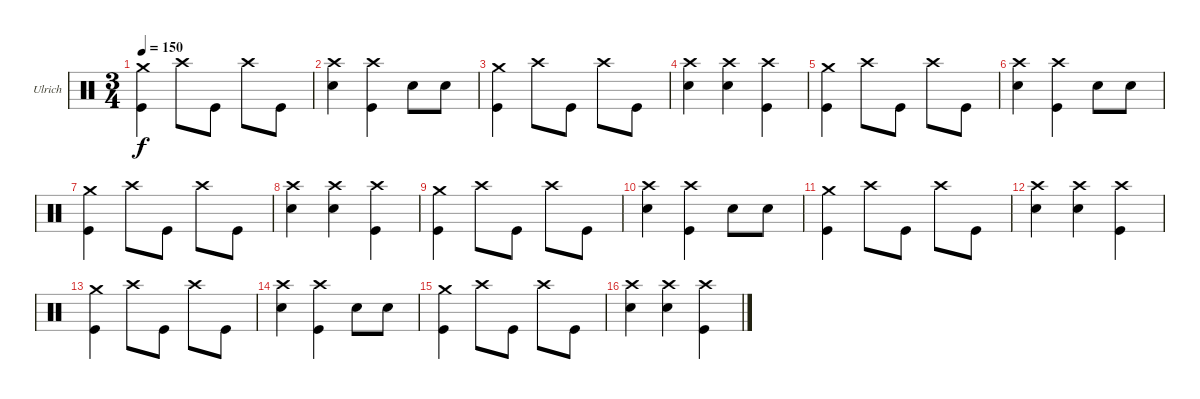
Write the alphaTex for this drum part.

\bracketExtendMode groupsimilarinstruments
\firstSystemTrackNameOrientation horizontal
\otherSystemsTrackNameOrientation horizontal
\track ("Drumkit" "Ulrich") {instrument percussion}
\staff {score}
\articulation defaults
\ts (3 4)
\tempo 150
\clef neutral
\ks c
("Crash medium (hit)" "Kick (hit)").4{dy f} "Crash high (hit)".8 "Kick (hit)".8 "Crash high (hit)".8 "Kick (hit)".8 |
("Crash high (hit)" "Snare (hit) 2").4 ("Crash high (hit)" "Kick (hit)").4 "Snare (hit) 2".8 "Snare (hit) 2".8 |
("Crash medium (hit)" "Kick (hit)").4 "Crash high (hit)".8 "Kick (hit)".8 "Crash high (hit)".8 "Kick (hit)".8 |
("Crash high (hit)" "Snare (hit) 2").4 ("Crash high (hit)" "Snare (hit) 2").4 ("Crash high (hit)" "Kick (hit)").4 |
("Crash medium (hit)" "Kick (hit)").4 "Crash high (hit)".8 "Kick (hit)".8 "Crash high (hit)".8 "Kick (hit)".8 |
("Crash high (hit)" "Snare (hit) 2").4 ("Crash high (hit)" "Kick (hit)").4 "Snare (hit) 2".8 "Snare (hit) 2".8 |
("Crash medium (hit)" "Kick (hit)").4 "Crash high (hit)".8 "Kick (hit)".8 "Crash high (hit)".8 "Kick (hit)".8 |
("Crash high (hit)" "Snare (hit) 2").4 ("Crash high (hit)" "Snare (hit) 2").4 ("Crash high (hit)" "Kick (hit)").4 |
("Crash medium (hit)" "Kick (hit)").4 "Crash high (hit)".8 "Kick (hit)".8 "Crash high (hit)".8 "Kick (hit)".8 |
("Crash high (hit)" "Snare (hit) 2").4 ("Crash high (hit)" "Kick (hit)").4 "Snare (hit) 2".8 "Snare (hit) 2".8 |
("Crash medium (hit)" "Kick (hit)").4 "Crash high (hit)".8 "Kick (hit)".8 "Crash high (hit)".8 "Kick (hit)".8 |
("Crash high (hit)" "Snare (hit) 2").4 ("Crash high (hit)" "Snare (hit) 2").4 ("Crash high (hit)" "Kick (hit)").4 |
("Crash medium (hit)" "Kick (hit)").4 "Crash high (hit)".8 "Kick (hit)".8 "Crash high (hit)".8 "Kick (hit)".8 |
("Crash high (hit)" "Snare (hit) 2").4 ("Crash high (hit)" "Kick (hit)").4 "Snare (hit) 2".8 "Snare (hit) 2".8 |
("Crash medium (hit)" "Kick (hit)").4 "Crash high (hit)".8 "Kick (hit)".8 "Crash high (hit)".8 "Kick (hit)".8 |
("Crash high (hit)" "Snare (hit) 2").4 ("Crash high (hit)" "Snare (hit) 2").4 ("Crash high (hit)" "Kick (hit)").4
